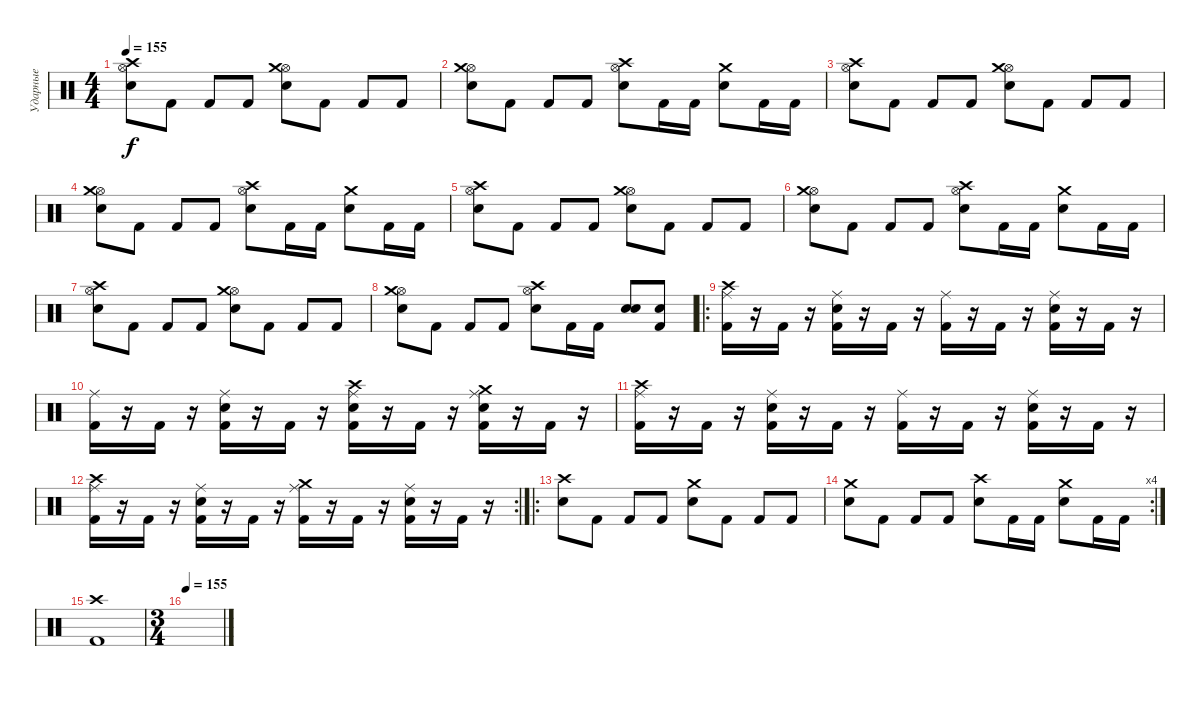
\track ("Ударные" "Ударные") {instrument percussion}
\staff {score}
\articulation defaults
\ts (4 4)
\tempo 155
\clef neutral
\ks c
("Snare (hit) 2" "Hi-Hat (open)" "Crash high (hit)").8{dy f} "Kick (hit) 2".8 "Kick (hit) 2".8 "Kick (hit) 2".8 ("Snare (hit) 2" "Hi-Hat (open)" "Crash medium (hit)").8 "Kick (hit) 2".8 "Kick (hit) 2".8 "Kick (hit) 2".8 |
("Snare (hit) 2" "Hi-Hat (open)" "Crash medium (hit)").8 "Kick (hit) 2".8 "Kick (hit) 2".8 "Kick (hit) 2".8 ("Snare (hit) 2" "Hi-Hat (open)" "Crash high (hit)").8 "Kick (hit) 2".16 "Kick (hit) 2".16 ("Snare (hit) 2" "Crash medium (hit)").8 "Kick (hit) 2".16 "Kick (hit) 2".16 |
("Snare (hit) 2" "Hi-Hat (open)" "Crash high (hit)").8 "Kick (hit) 2".8 "Kick (hit) 2".8 "Kick (hit) 2".8 ("Snare (hit) 2" "Hi-Hat (open)" "Crash medium (hit)").8 "Kick (hit) 2".8 "Kick (hit) 2".8 "Kick (hit) 2".8 |
("Snare (hit) 2" "Hi-Hat (open)" "Crash medium (hit)").8 "Kick (hit) 2".8 "Kick (hit) 2".8 "Kick (hit) 2".8 ("Snare (hit) 2" "Hi-Hat (open)" "Crash high (hit)").8 "Kick (hit) 2".16 "Kick (hit) 2".16 ("Snare (hit) 2" "Crash medium (hit)").8 "Kick (hit) 2".16 "Kick (hit) 2".16 |
("Snare (hit) 2" "Hi-Hat (open)" "Crash high (hit)").8 "Kick (hit) 2".8 "Kick (hit) 2".8 "Kick (hit) 2".8 ("Snare (hit) 2" "Hi-Hat (open)" "Crash medium (hit)").8 "Kick (hit) 2".8 "Kick (hit) 2".8 "Kick (hit) 2".8 |
("Snare (hit) 2" "Hi-Hat (open)" "Crash medium (hit)").8 "Kick (hit) 2".8 "Kick (hit) 2".8 "Kick (hit) 2".8 ("Snare (hit) 2" "Hi-Hat (open)" "Crash high (hit)").8 "Kick (hit) 2".16 "Kick (hit) 2".16 ("Snare (hit) 2" "Crash medium (hit)").8 "Kick (hit) 2".16 "Kick (hit) 2".16 |
("Snare (hit) 2" "Hi-Hat (open)" "Crash high (hit)").8 "Kick (hit) 2".8 "Kick (hit) 2".8 "Kick (hit) 2".8 ("Snare (hit) 2" "Hi-Hat (open)" "Crash medium (hit)").8 "Kick (hit) 2".8 "Kick (hit) 2".8 "Kick (hit) 2".8 |
("Snare (hit) 2" "Hi-Hat (open)" "Crash medium (hit)").8 "Kick (hit) 2".8 "Kick (hit) 2".8 "Kick (hit) 2".8 ("Snare (hit) 2" "Hi-Hat (open)" "Crash high (hit)").8 "Kick (hit) 2".16 "Kick (hit) 2".16 ("Snare (hit) 2" "Snare (hit) 2").8 ("Kick (hit) 2" "Snare (hit) 2").8 |
\ro
("Kick (hit) 2" "Ride (middle)" "Crash high (hit)").16 r.16 "Kick (hit) 2".16 r.16 ("Kick (hit) 2" "Ride (middle)" "Snare (hit) 2").16 r.16 "Kick (hit) 2".16 r.16 ("Kick (hit) 2" "Ride (middle)").16 r.16 "Kick (hit) 2".16 r.16 ("Kick (hit) 2" "Ride (middle)" "Snare (hit) 2").16 r.16 "Kick (hit) 2".16 r.16 |
("Kick (hit) 2" "Ride (middle)").16 r.16 "Kick (hit) 2".16 r.16 ("Kick (hit) 2" "Ride (middle)" "Snare (hit) 2").16 r.16 "Kick (hit) 2".16 r.16 ("Kick (hit) 2" "Crash high (hit)" "Ride (middle)" "Snare (hit) 2").16 r.16 "Kick (hit) 2".16 r.16 ("Kick (hit) 2" "Crash medium (hit)" "Ride (middle)" "Snare (hit) 2").16 r.16 "Kick (hit) 2".16 r.16 |
("Kick (hit) 2" "Ride (middle)" "Crash high (hit)").16 r.16 "Kick (hit) 2".16 r.16 ("Kick (hit) 2" "Ride (middle)" "Snare (hit) 2").16 r.16 "Kick (hit) 2".16 r.16 ("Kick (hit) 2" "Ride (middle)").16 r.16 "Kick (hit) 2".16 r.16 ("Kick (hit) 2" "Ride (middle)" "Snare (hit) 2").16 r.16 "Kick (hit) 2".16 r.16 |
\rc 2
("Kick (hit) 2" "Crash high (hit)" "Ride (middle)").16 r.16 "Kick (hit) 2".16 r.16 ("Kick (hit) 2" "Ride (middle)" "Snare (hit) 2").16 r.16 "Kick (hit) 2".16 r.16 ("Kick (hit) 2" "Crash medium (hit)" "Ride (middle)").16 r.16 "Kick (hit) 2".16 r.16 ("Kick (hit) 2" "Ride (middle)" "Snare (hit) 2").16 r.16 "Kick (hit) 2".16 r.16 |
\ro
("Snare (hit) 2" "Crash high (hit)").8 "Kick (hit) 2".8 "Kick (hit) 2".8 "Kick (hit) 2".8 ("Snare (hit) 2" "Crash medium (hit)").8 "Kick (hit) 2".8 "Kick (hit) 2".8 "Kick (hit) 2".8 |
\rc 4
("Snare (hit) 2" "Crash medium (hit)").8 "Kick (hit) 2".8 "Kick (hit) 2".8 "Kick (hit) 2".8 ("Snare (hit) 2" "Crash high (hit)").8 "Kick (hit) 2".16 "Kick (hit) 2".16 ("Snare (hit) 2" "Crash medium (hit)").8 "Kick (hit) 2".16 "Kick (hit) 2".16 |
("Crash high (hit)" "Kick (hit) 2").1 |
\ts (3 4)
\tempo 155
